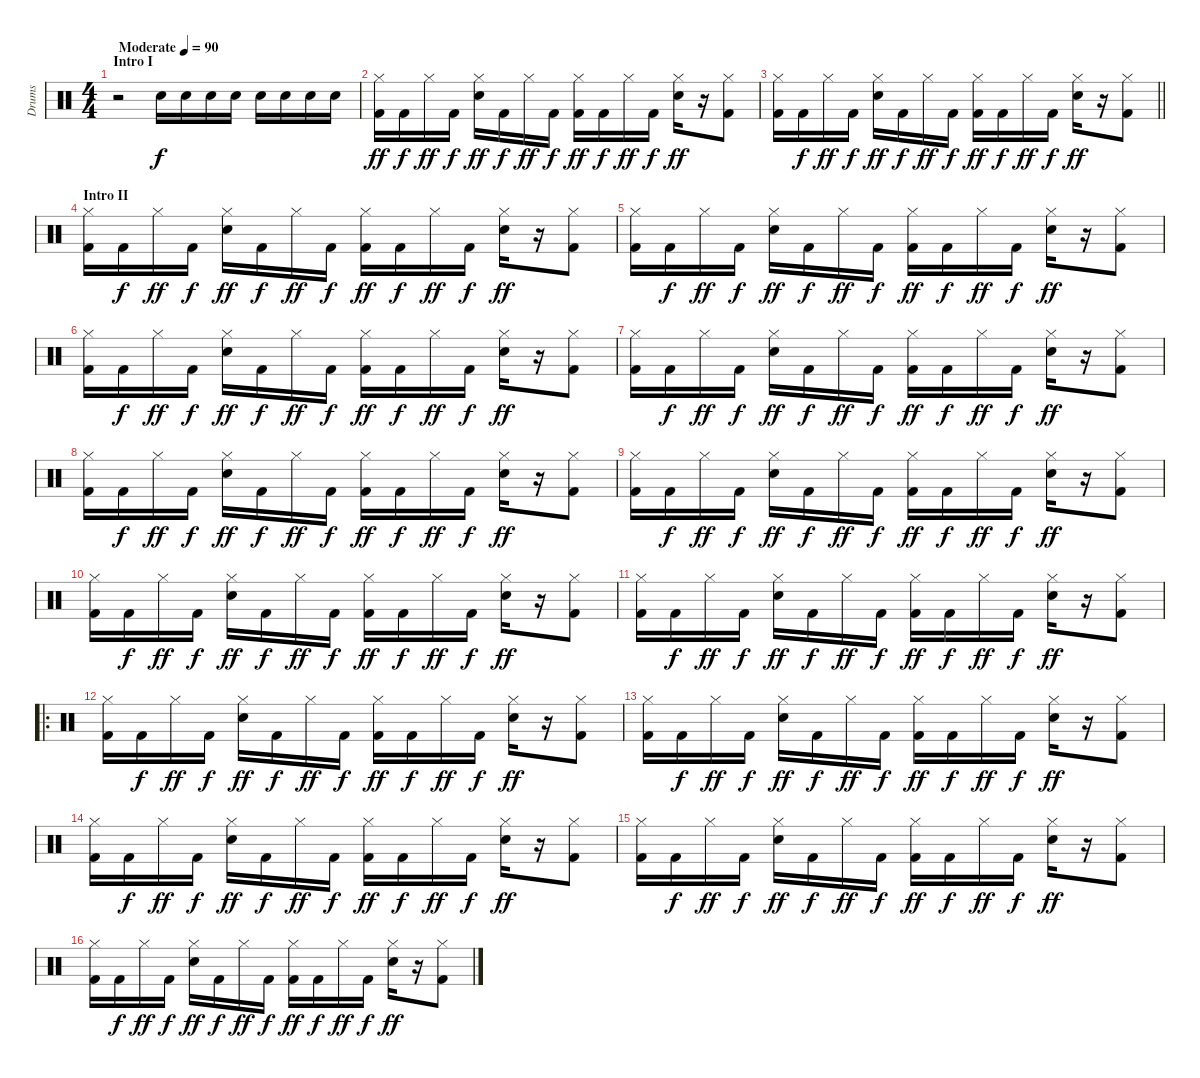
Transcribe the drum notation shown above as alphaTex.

\track ("Drums" "Drums") {instrument percussion}
\staff {score}
\articulation defaults
\ts (4 4)
\section ("" "Intro I")
\tempo (90 "Moderate")
\clef neutral
\ks c
r.2{dy f} "Snare (hit) 2".16 "Snare (hit) 2".16 "Snare (hit) 2".16 "Snare (hit) 2".16 "Snare (hit) 2".16 "Snare (hit) 2".16 "Snare (hit) 2".16 "Snare (hit) 2".16 |
("Hi-Hat (closed)" "Kick (hit) 2").16{dy ff} "Kick (hit) 2".16{dy f} "Hi-Hat (closed)".16{dy ff} "Kick (hit) 2".16{dy f} ("Hi-Hat (closed)" "Electric Snare (hit)").16{dy ff} "Kick (hit) 2".16{dy f} "Hi-Hat (closed)".16{dy ff} "Kick (hit) 2".16{dy f} ("Hi-Hat (closed)" "Kick (hit) 2").16{dy ff} "Kick (hit) 2".16{dy f} "Hi-Hat (closed)".16{dy ff} "Kick (hit) 2".16{dy f} ("Hi-Hat (closed)" "Electric Snare (hit)").16{dy ff} r.16 ("Hi-Hat (closed)" "Kick (hit) 2").8 |
\barLineRight lightlight
("Hi-Hat (closed)" "Kick (hit) 2").16 "Kick (hit) 2".16{dy f} "Hi-Hat (closed)".16{dy ff} "Kick (hit) 2".16{dy f} ("Hi-Hat (closed)" "Electric Snare (hit)").16{dy ff} "Kick (hit) 2".16{dy f} "Hi-Hat (closed)".16{dy ff} "Kick (hit) 2".16{dy f} ("Hi-Hat (closed)" "Kick (hit) 2").16{dy ff} "Kick (hit) 2".16{dy f} "Hi-Hat (closed)".16{dy ff} "Kick (hit) 2".16{dy f} ("Hi-Hat (closed)" "Electric Snare (hit)").16{dy ff} r.16 ("Hi-Hat (closed)" "Kick (hit) 2").8 |
\section ("" "Intro II")
("Hi-Hat (closed)" "Kick (hit) 2").16 "Kick (hit) 2".16{dy f} "Hi-Hat (closed)".16{dy ff} "Kick (hit) 2".16{dy f} ("Hi-Hat (closed)" "Electric Snare (hit)").16{dy ff} "Kick (hit) 2".16{dy f} "Hi-Hat (closed)".16{dy ff} "Kick (hit) 2".16{dy f} ("Hi-Hat (closed)" "Kick (hit) 2").16{dy ff} "Kick (hit) 2".16{dy f} "Hi-Hat (closed)".16{dy ff} "Kick (hit) 2".16{dy f} ("Hi-Hat (closed)" "Electric Snare (hit)").16{dy ff} r.16 ("Hi-Hat (closed)" "Kick (hit) 2").8 |
("Hi-Hat (closed)" "Kick (hit) 2").16 "Kick (hit) 2".16{dy f} "Hi-Hat (closed)".16{dy ff} "Kick (hit) 2".16{dy f} ("Hi-Hat (closed)" "Electric Snare (hit)").16{dy ff} "Kick (hit) 2".16{dy f} "Hi-Hat (closed)".16{dy ff} "Kick (hit) 2".16{dy f} ("Hi-Hat (closed)" "Kick (hit) 2").16{dy ff} "Kick (hit) 2".16{dy f} "Hi-Hat (closed)".16{dy ff} "Kick (hit) 2".16{dy f} ("Hi-Hat (closed)" "Electric Snare (hit)").16{dy ff} r.16 ("Hi-Hat (closed)" "Kick (hit) 2").8 |
("Hi-Hat (closed)" "Kick (hit) 2").16 "Kick (hit) 2".16{dy f} "Hi-Hat (closed)".16{dy ff} "Kick (hit) 2".16{dy f} ("Hi-Hat (closed)" "Electric Snare (hit)").16{dy ff} "Kick (hit) 2".16{dy f} "Hi-Hat (closed)".16{dy ff} "Kick (hit) 2".16{dy f} ("Hi-Hat (closed)" "Kick (hit) 2").16{dy ff} "Kick (hit) 2".16{dy f} "Hi-Hat (closed)".16{dy ff} "Kick (hit) 2".16{dy f} ("Hi-Hat (closed)" "Electric Snare (hit)").16{dy ff} r.16 ("Hi-Hat (closed)" "Kick (hit) 2").8 |
("Hi-Hat (closed)" "Kick (hit) 2").16 "Kick (hit) 2".16{dy f} "Hi-Hat (closed)".16{dy ff} "Kick (hit) 2".16{dy f} ("Hi-Hat (closed)" "Electric Snare (hit)").16{dy ff} "Kick (hit) 2".16{dy f} "Hi-Hat (closed)".16{dy ff} "Kick (hit) 2".16{dy f} ("Hi-Hat (closed)" "Kick (hit) 2").16{dy ff} "Kick (hit) 2".16{dy f} "Hi-Hat (closed)".16{dy ff} "Kick (hit) 2".16{dy f} ("Hi-Hat (closed)" "Electric Snare (hit)").16{dy ff} r.16 ("Hi-Hat (closed)" "Kick (hit) 2").8 |
("Hi-Hat (closed)" "Kick (hit) 2").16 "Kick (hit) 2".16{dy f} "Hi-Hat (closed)".16{dy ff} "Kick (hit) 2".16{dy f} ("Hi-Hat (closed)" "Electric Snare (hit)").16{dy ff} "Kick (hit) 2".16{dy f} "Hi-Hat (closed)".16{dy ff} "Kick (hit) 2".16{dy f} ("Hi-Hat (closed)" "Kick (hit) 2").16{dy ff} "Kick (hit) 2".16{dy f} "Hi-Hat (closed)".16{dy ff} "Kick (hit) 2".16{dy f} ("Hi-Hat (closed)" "Electric Snare (hit)").16{dy ff} r.16 ("Hi-Hat (closed)" "Kick (hit) 2").8 |
("Hi-Hat (closed)" "Kick (hit) 2").16 "Kick (hit) 2".16{dy f} "Hi-Hat (closed)".16{dy ff} "Kick (hit) 2".16{dy f} ("Hi-Hat (closed)" "Electric Snare (hit)").16{dy ff} "Kick (hit) 2".16{dy f} "Hi-Hat (closed)".16{dy ff} "Kick (hit) 2".16{dy f} ("Hi-Hat (closed)" "Kick (hit) 2").16{dy ff} "Kick (hit) 2".16{dy f} "Hi-Hat (closed)".16{dy ff} "Kick (hit) 2".16{dy f} ("Hi-Hat (closed)" "Electric Snare (hit)").16{dy ff} r.16 ("Hi-Hat (closed)" "Kick (hit) 2").8 |
("Hi-Hat (closed)" "Kick (hit) 2").16 "Kick (hit) 2".16{dy f} "Hi-Hat (closed)".16{dy ff} "Kick (hit) 2".16{dy f} ("Hi-Hat (closed)" "Electric Snare (hit)").16{dy ff} "Kick (hit) 2".16{dy f} "Hi-Hat (closed)".16{dy ff} "Kick (hit) 2".16{dy f} ("Hi-Hat (closed)" "Kick (hit) 2").16{dy ff} "Kick (hit) 2".16{dy f} "Hi-Hat (closed)".16{dy ff} "Kick (hit) 2".16{dy f} ("Hi-Hat (closed)" "Electric Snare (hit)").16{dy ff} r.16 ("Hi-Hat (closed)" "Kick (hit) 2").8 |
("Hi-Hat (closed)" "Kick (hit) 2").16 "Kick (hit) 2".16{dy f} "Hi-Hat (closed)".16{dy ff} "Kick (hit) 2".16{dy f} ("Hi-Hat (closed)" "Electric Snare (hit)").16{dy ff} "Kick (hit) 2".16{dy f} "Hi-Hat (closed)".16{dy ff} "Kick (hit) 2".16{dy f} ("Hi-Hat (closed)" "Kick (hit) 2").16{dy ff} "Kick (hit) 2".16{dy f} "Hi-Hat (closed)".16{dy ff} "Kick (hit) 2".16{dy f} ("Hi-Hat (closed)" "Electric Snare (hit)").16{dy ff} r.16 ("Hi-Hat (closed)" "Kick (hit) 2").8 |
\ro
("Hi-Hat (closed)" "Kick (hit) 2").16 "Kick (hit) 2".16{dy f} "Hi-Hat (closed)".16{dy ff} "Kick (hit) 2".16{dy f} ("Hi-Hat (closed)" "Electric Snare (hit)").16{dy ff} "Kick (hit) 2".16{dy f} "Hi-Hat (closed)".16{dy ff} "Kick (hit) 2".16{dy f} ("Hi-Hat (closed)" "Kick (hit) 2").16{dy ff} "Kick (hit) 2".16{dy f} "Hi-Hat (closed)".16{dy ff} "Kick (hit) 2".16{dy f} ("Hi-Hat (closed)" "Electric Snare (hit)").16{dy ff} r.16 ("Hi-Hat (closed)" "Kick (hit) 2").8 |
("Hi-Hat (closed)" "Kick (hit) 2").16 "Kick (hit) 2".16{dy f} "Hi-Hat (closed)".16{dy ff} "Kick (hit) 2".16{dy f} ("Hi-Hat (closed)" "Electric Snare (hit)").16{dy ff} "Kick (hit) 2".16{dy f} "Hi-Hat (closed)".16{dy ff} "Kick (hit) 2".16{dy f} ("Hi-Hat (closed)" "Kick (hit) 2").16{dy ff} "Kick (hit) 2".16{dy f} "Hi-Hat (closed)".16{dy ff} "Kick (hit) 2".16{dy f} ("Hi-Hat (closed)" "Electric Snare (hit)").16{dy ff} r.16 ("Hi-Hat (closed)" "Kick (hit) 2").8 |
("Hi-Hat (closed)" "Kick (hit) 2").16 "Kick (hit) 2".16{dy f} "Hi-Hat (closed)".16{dy ff} "Kick (hit) 2".16{dy f} ("Hi-Hat (closed)" "Electric Snare (hit)").16{dy ff} "Kick (hit) 2".16{dy f} "Hi-Hat (closed)".16{dy ff} "Kick (hit) 2".16{dy f} ("Hi-Hat (closed)" "Kick (hit) 2").16{dy ff} "Kick (hit) 2".16{dy f} "Hi-Hat (closed)".16{dy ff} "Kick (hit) 2".16{dy f} ("Hi-Hat (closed)" "Electric Snare (hit)").16{dy ff} r.16 ("Hi-Hat (closed)" "Kick (hit) 2").8 |
("Hi-Hat (closed)" "Kick (hit) 2").16 "Kick (hit) 2".16{dy f} "Hi-Hat (closed)".16{dy ff} "Kick (hit) 2".16{dy f} ("Hi-Hat (closed)" "Electric Snare (hit)").16{dy ff} "Kick (hit) 2".16{dy f} "Hi-Hat (closed)".16{dy ff} "Kick (hit) 2".16{dy f} ("Hi-Hat (closed)" "Kick (hit) 2").16{dy ff} "Kick (hit) 2".16{dy f} "Hi-Hat (closed)".16{dy ff} "Kick (hit) 2".16{dy f} ("Hi-Hat (closed)" "Electric Snare (hit)").16{dy ff} r.16 ("Hi-Hat (closed)" "Kick (hit) 2").8 |
("Hi-Hat (closed)" "Kick (hit) 2").16 "Kick (hit) 2".16{dy f} "Hi-Hat (closed)".16{dy ff} "Kick (hit) 2".16{dy f} ("Hi-Hat (closed)" "Electric Snare (hit)").16{dy ff} "Kick (hit) 2".16{dy f} "Hi-Hat (closed)".16{dy ff} "Kick (hit) 2".16{dy f} ("Hi-Hat (closed)" "Kick (hit) 2").16{dy ff} "Kick (hit) 2".16{dy f} "Hi-Hat (closed)".16{dy ff} "Kick (hit) 2".16{dy f} ("Hi-Hat (closed)" "Electric Snare (hit)").16{dy ff} r.16 ("Hi-Hat (closed)" "Kick (hit) 2").8
